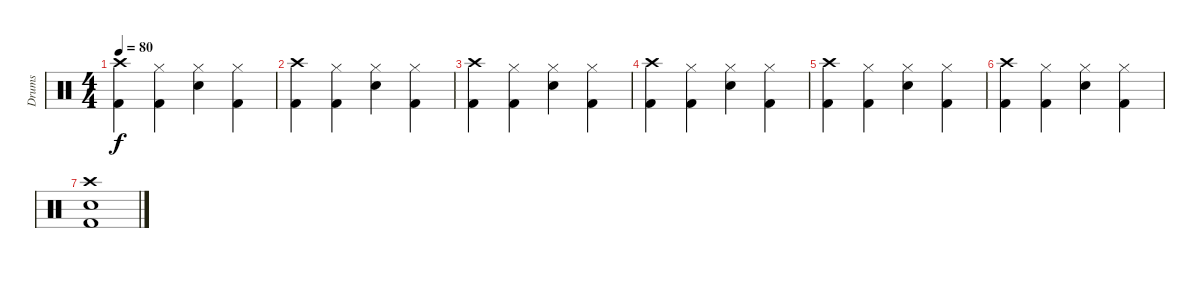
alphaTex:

\track ("Drums" "Drums") {instrument percussion}
\staff {score}
\articulation defaults
\ts (4 4)
\tempo 80
\clef neutral
\ks c
("Crash high (hit)" "Kick (hit) 2").4{dy f} ("Hi-Hat (closed)" "Kick (hit) 2").4 ("Hi-Hat (closed)" "Electric Snare (hit)").4 ("Hi-Hat (closed)" "Kick (hit) 2").4 |
("Crash high (hit)" "Kick (hit) 2").4 ("Hi-Hat (closed)" "Kick (hit) 2").4 ("Hi-Hat (closed)" "Electric Snare (hit)").4 ("Hi-Hat (closed)" "Kick (hit) 2").4 |
("Crash high (hit)" "Kick (hit) 2").4 ("Hi-Hat (closed)" "Kick (hit) 2").4 ("Hi-Hat (closed)" "Electric Snare (hit)").4 ("Hi-Hat (closed)" "Kick (hit) 2").4 |
("Crash high (hit)" "Kick (hit) 2").4 ("Hi-Hat (closed)" "Kick (hit) 2").4 ("Hi-Hat (closed)" "Electric Snare (hit)").4 ("Hi-Hat (closed)" "Kick (hit) 2").4 |
("Crash high (hit)" "Kick (hit) 2").4 ("Hi-Hat (closed)" "Kick (hit) 2").4 ("Hi-Hat (closed)" "Electric Snare (hit)").4 ("Hi-Hat (closed)" "Kick (hit) 2").4 |
("Crash high (hit)" "Kick (hit) 2").4 ("Hi-Hat (closed)" "Kick (hit) 2").4 ("Hi-Hat (closed)" "Electric Snare (hit)").4 ("Hi-Hat (closed)" "Kick (hit) 2").4 |
("Crash high (hit)" "Electric Snare (hit)" "Kick (hit) 2").1
